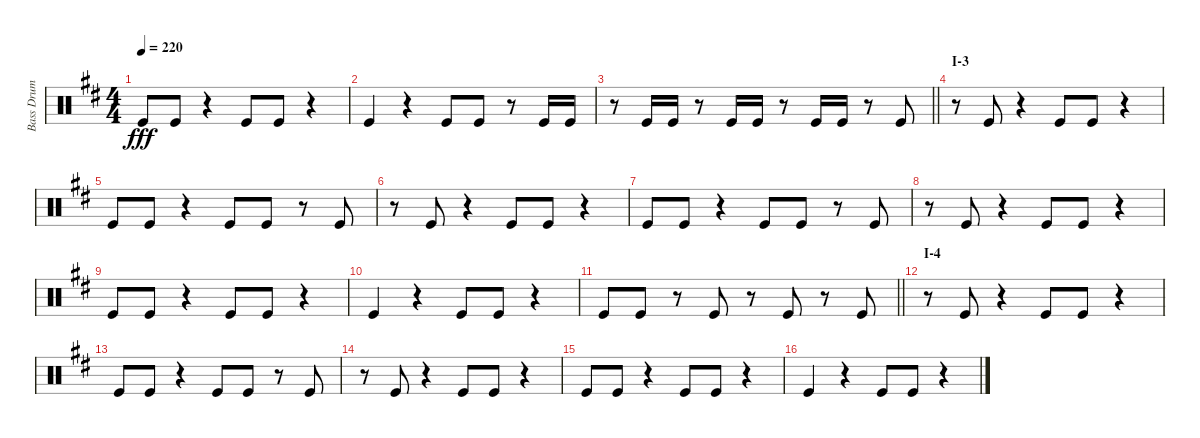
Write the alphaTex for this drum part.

\track ("Bass Drum" "Bass Drum") {instrument percussion}
\staff {score}
\articulation defaults
\ts (4 4)
\tempo 220
\clef neutral
\ks d "Kick (hit)".8{dy fff} "Kick (hit)".8
r.4 "Kick (hit)".8 "Kick (hit)".8 r.4 |
"Kick (hit)".4 r.4 "Kick (hit)".8 "Kick (hit)".8 r.8 "Kick (hit)".16 "Kick (hit)".16 |
\barLineRight lightlight
r.8 "Kick (hit)".16 "Kick (hit)".16 r.8 "Kick (hit)".16 "Kick (hit)".16 r.8 "Kick (hit)".16 "Kick (hit)".16 r.8 "Kick (hit)".8 |
\section ("" "I-3")
r.8 "Kick (hit)".8 r.4 "Kick (hit)".8 "Kick (hit)".8 r.4 |
"Kick (hit)".8 "Kick (hit)".8 r.4 "Kick (hit)".8 "Kick (hit)".8 r.8 "Kick (hit)".8 |
r.8 "Kick (hit)".8 r.4 "Kick (hit)".8 "Kick (hit)".8 r.4 |
"Kick (hit)".8 "Kick (hit)".8 r.4 "Kick (hit)".8 "Kick (hit)".8 r.8 "Kick (hit)".8 |
r.8 "Kick (hit)".8 r.4 "Kick (hit)".8 "Kick (hit)".8 r.4 |
"Kick (hit)".8 "Kick (hit)".8 r.4 "Kick (hit)".8 "Kick (hit)".8 r.4 |
"Kick (hit)".4 r.4 "Kick (hit)".8 "Kick (hit)".8 r.4 |
\barLineRight lightlight "Kick (hit)".8 "Kick (hit)".8
r.8 "Kick (hit)".8 r.8 "Kick (hit)".8 r.8 "Kick (hit)".8 |
\section ("" "I-4")
r.8 "Kick (hit)".8 r.4 "Kick (hit)".8 "Kick (hit)".8 r.4 |
"Kick (hit)".8 "Kick (hit)".8 r.4 "Kick (hit)".8 "Kick (hit)".8 r.8 "Kick (hit)".8 |
r.8 "Kick (hit)".8 r.4 "Kick (hit)".8 "Kick (hit)".8 r.4 |
"Kick (hit)".8 "Kick (hit)".8 r.4 "Kick (hit)".8 "Kick (hit)".8 r.4 |
"Kick (hit)".4 r.4 "Kick (hit)".8 "Kick (hit)".8 r.4
